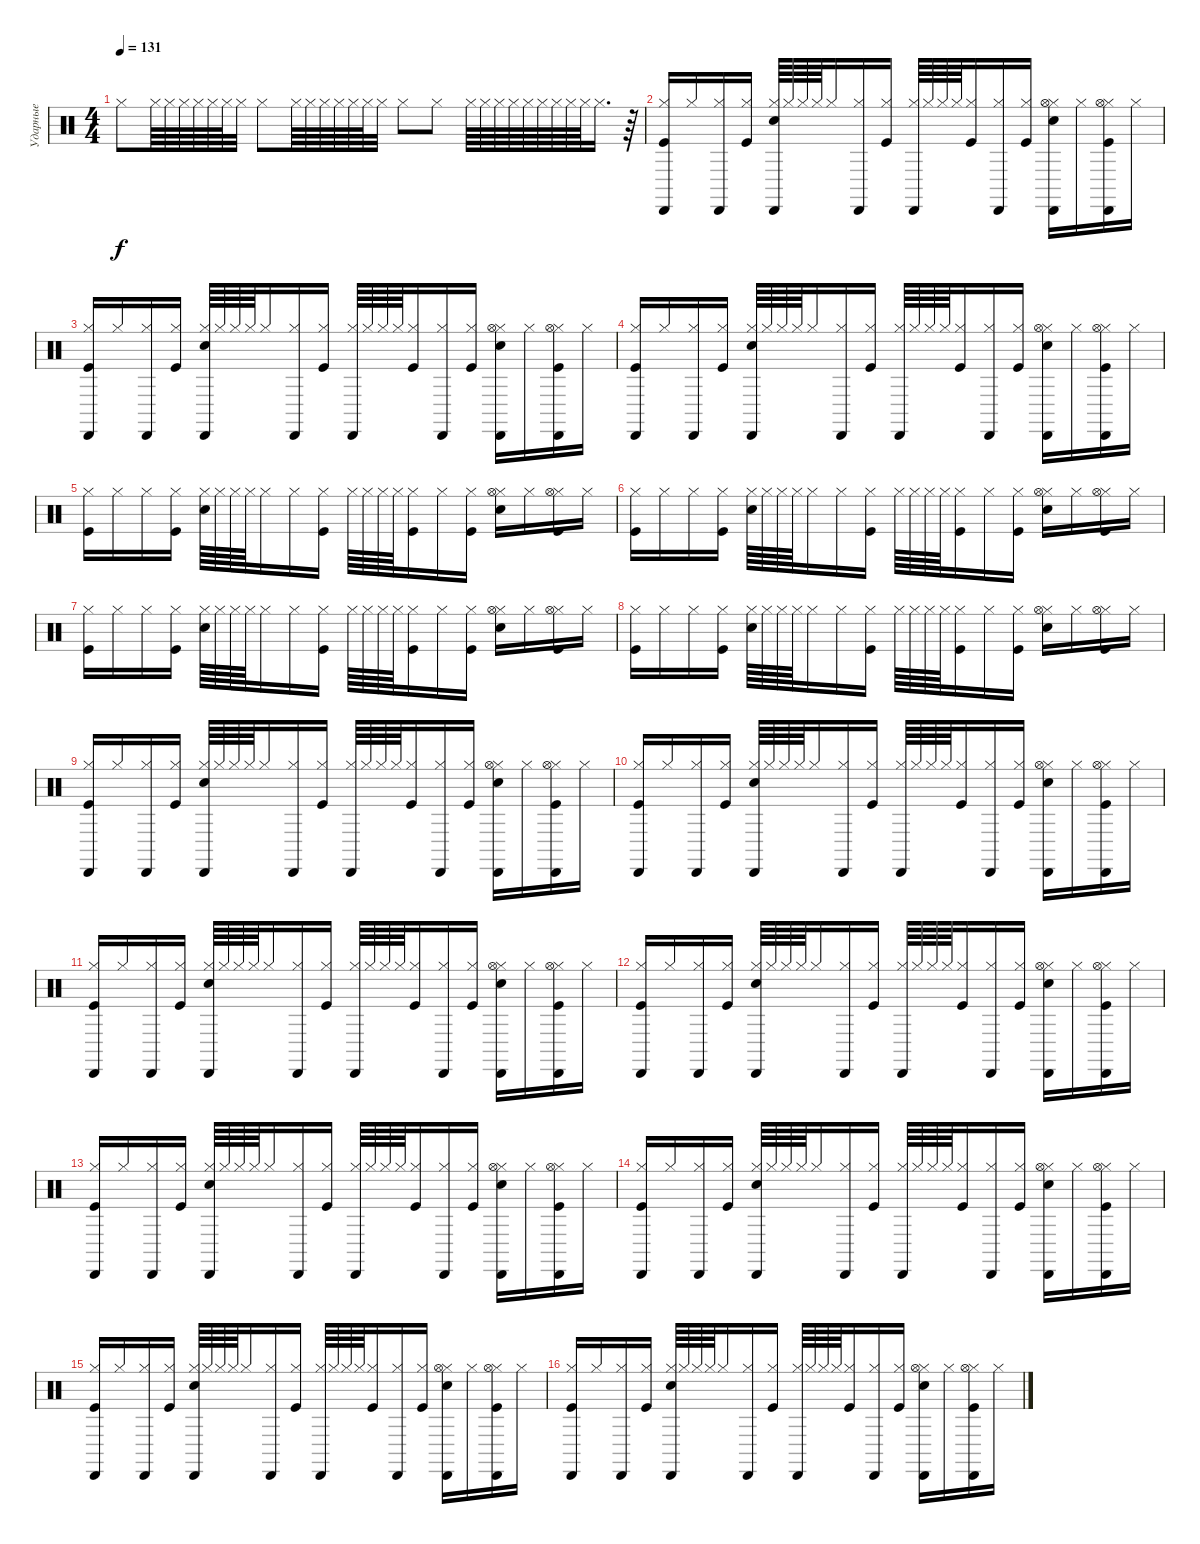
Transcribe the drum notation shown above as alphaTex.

\track ("Ударные" "Ударные") {instrument percussion}
\staff {score}
\articulation defaults
\ts (4 4)
\tempo 131
\clef neutral
\ks c "Hi-Hat (closed)".8{dy f} "Hi-Hat (closed)".64 "Hi-Hat (closed)".64 "Hi-Hat (closed)".64 "Hi-Hat (closed)".64 "Hi-Hat (closed)".64 "Hi-Hat (closed)".64 "Hi-Hat (closed)".32 "Hi-Hat (closed)".8 "Hi-Hat (closed)".64 "Hi-Hat (closed)".64 "Hi-Hat (closed)".64 "Hi-Hat (closed)".64 "Hi-Hat (closed)".64 "Hi-Hat (closed)".64 "Hi-Hat (closed)".32 "Hi-Hat (closed)".8 "Hi-Hat (closed)".8 "Hi-Hat (closed)".64 "Hi-Hat (closed)".64 "Hi-Hat (closed)".64 "Hi-Hat (closed)".64 "Hi-Hat (closed)".64 "Hi-Hat (closed)".64 "Hi-Hat (closed)".64 "Hi-Hat (closed)".64 "Hi-Hat (closed)".64 "Hi-Hat (closed)".16{d}
r.64 |
("Hi-Hat (closed)" "Kick (hit)" "Cabasa (hit)").16 "Hi-Hat (closed)".16 ("Hi-Hat (closed)" "Cabasa (hit)").16 ("Hi-Hat (closed)" "Kick (hit)").16 ("Hi-Hat (closed)" "Snare (hit) 2" "Cabasa (hit)").64 "Hi-Hat (closed)".64 "Hi-Hat (closed)".64 "Hi-Hat (closed)".64 "Hi-Hat (closed)".16 ("Hi-Hat (closed)" "Cabasa (hit)").16 ("Hi-Hat (closed)" "Kick (hit)").16 ("Hi-Hat (closed)" "Cabasa (hit)").64 "Hi-Hat (closed)".64 "Hi-Hat (closed)".64 "Hi-Hat (closed)".64 ("Hi-Hat (closed)" "Kick (hit)").16 ("Hi-Hat (closed)" "Cabasa (hit)").16 ("Hi-Hat (closed)" "Kick (hit)").16 ("Hi-Hat (closed)" "Hi-Hat (open)" "Snare (hit) 2" "Cabasa (hit)").16 "Hi-Hat (closed)".16 ("Hi-Hat (closed)" "Hi-Hat (open)" "Kick (hit)" "Cabasa (hit)").16 "Hi-Hat (closed)".16 |
("Hi-Hat (closed)" "Kick (hit)" "Cabasa (hit)").16 "Hi-Hat (closed)".16 ("Hi-Hat (closed)" "Cabasa (hit)").16 ("Hi-Hat (closed)" "Kick (hit)").16 ("Hi-Hat (closed)" "Snare (hit) 2" "Cabasa (hit)").64 "Hi-Hat (closed)".64 "Hi-Hat (closed)".64 "Hi-Hat (closed)".64 "Hi-Hat (closed)".16 ("Hi-Hat (closed)" "Cabasa (hit)").16 ("Hi-Hat (closed)" "Kick (hit)").16 ("Hi-Hat (closed)" "Cabasa (hit)").64 "Hi-Hat (closed)".64 "Hi-Hat (closed)".64 "Hi-Hat (closed)".64 ("Hi-Hat (closed)" "Kick (hit)").16 ("Hi-Hat (closed)" "Cabasa (hit)").16 ("Hi-Hat (closed)" "Kick (hit)").16 ("Hi-Hat (closed)" "Hi-Hat (open)" "Snare (hit) 2" "Cabasa (hit)").16 "Hi-Hat (closed)".16 ("Hi-Hat (closed)" "Hi-Hat (open)" "Kick (hit)" "Cabasa (hit)").16 "Hi-Hat (closed)".16 |
("Hi-Hat (closed)" "Kick (hit)" "Cabasa (hit)").16 "Hi-Hat (closed)".16 ("Hi-Hat (closed)" "Cabasa (hit)").16 ("Hi-Hat (closed)" "Kick (hit)").16 ("Hi-Hat (closed)" "Snare (hit) 2" "Cabasa (hit)").64 "Hi-Hat (closed)".64 "Hi-Hat (closed)".64 "Hi-Hat (closed)".64 "Hi-Hat (closed)".16 ("Hi-Hat (closed)" "Cabasa (hit)").16 ("Hi-Hat (closed)" "Kick (hit)").16 ("Hi-Hat (closed)" "Cabasa (hit)").64 "Hi-Hat (closed)".64 "Hi-Hat (closed)".64 "Hi-Hat (closed)".64 ("Hi-Hat (closed)" "Kick (hit)").16 ("Hi-Hat (closed)" "Cabasa (hit)").16 ("Hi-Hat (closed)" "Kick (hit)").16 ("Hi-Hat (closed)" "Hi-Hat (open)" "Snare (hit) 2" "Cabasa (hit)").16 "Hi-Hat (closed)".16 ("Hi-Hat (closed)" "Hi-Hat (open)" "Kick (hit)" "Cabasa (hit)").16 "Hi-Hat (closed)".16 |
("Hi-Hat (closed)" "Kick (hit)").16 "Hi-Hat (closed)".16 "Hi-Hat (closed)".16 ("Hi-Hat (closed)" "Kick (hit)").16 ("Hi-Hat (closed)" "Snare (hit) 2").64 "Hi-Hat (closed)".64 "Hi-Hat (closed)".64 "Hi-Hat (closed)".64 "Hi-Hat (closed)".16 "Hi-Hat (closed)".16 ("Hi-Hat (closed)" "Kick (hit)").16 "Hi-Hat (closed)".64 "Hi-Hat (closed)".64 "Hi-Hat (closed)".64 "Hi-Hat (closed)".64 ("Hi-Hat (closed)" "Kick (hit)").16 "Hi-Hat (closed)".16 ("Hi-Hat (closed)" "Kick (hit)").16 ("Hi-Hat (closed)" "Hi-Hat (open)" "Snare (hit) 2").16 "Hi-Hat (closed)".16 ("Hi-Hat (closed)" "Hi-Hat (open)" "Kick (hit)").16 "Hi-Hat (closed)".16 |
("Hi-Hat (closed)" "Kick (hit)").16 "Hi-Hat (closed)".16 "Hi-Hat (closed)".16 ("Hi-Hat (closed)" "Kick (hit)").16 ("Hi-Hat (closed)" "Snare (hit) 2").64 "Hi-Hat (closed)".64 "Hi-Hat (closed)".64 "Hi-Hat (closed)".64 "Hi-Hat (closed)".16 "Hi-Hat (closed)".16 ("Hi-Hat (closed)" "Kick (hit)").16 "Hi-Hat (closed)".64 "Hi-Hat (closed)".64 "Hi-Hat (closed)".64 "Hi-Hat (closed)".64 ("Hi-Hat (closed)" "Kick (hit)").16 "Hi-Hat (closed)".16 ("Hi-Hat (closed)" "Kick (hit)").16 ("Hi-Hat (closed)" "Hi-Hat (open)" "Snare (hit) 2").16 "Hi-Hat (closed)".16 ("Hi-Hat (closed)" "Hi-Hat (open)" "Kick (hit)").16 "Hi-Hat (closed)".16 |
("Hi-Hat (closed)" "Kick (hit)").16 "Hi-Hat (closed)".16 "Hi-Hat (closed)".16 ("Hi-Hat (closed)" "Kick (hit)").16 ("Hi-Hat (closed)" "Snare (hit) 2").64 "Hi-Hat (closed)".64 "Hi-Hat (closed)".64 "Hi-Hat (closed)".64 "Hi-Hat (closed)".16 "Hi-Hat (closed)".16 ("Hi-Hat (closed)" "Kick (hit)").16 "Hi-Hat (closed)".64 "Hi-Hat (closed)".64 "Hi-Hat (closed)".64 "Hi-Hat (closed)".64 ("Hi-Hat (closed)" "Kick (hit)").16 "Hi-Hat (closed)".16 ("Hi-Hat (closed)" "Kick (hit)").16 ("Hi-Hat (closed)" "Hi-Hat (open)" "Snare (hit) 2").16 "Hi-Hat (closed)".16 ("Hi-Hat (closed)" "Hi-Hat (open)" "Kick (hit)").16 "Hi-Hat (closed)".16 |
("Hi-Hat (closed)" "Kick (hit)").16 "Hi-Hat (closed)".16 "Hi-Hat (closed)".16 ("Hi-Hat (closed)" "Kick (hit)").16 ("Hi-Hat (closed)" "Snare (hit) 2").64 "Hi-Hat (closed)".64 "Hi-Hat (closed)".64 "Hi-Hat (closed)".64 "Hi-Hat (closed)".16 "Hi-Hat (closed)".16 ("Hi-Hat (closed)" "Kick (hit)").16 "Hi-Hat (closed)".64 "Hi-Hat (closed)".64 "Hi-Hat (closed)".64 "Hi-Hat (closed)".64 ("Hi-Hat (closed)" "Kick (hit)").16 "Hi-Hat (closed)".16 ("Hi-Hat (closed)" "Kick (hit)").16 ("Hi-Hat (closed)" "Hi-Hat (open)" "Snare (hit) 2").16 "Hi-Hat (closed)".16 ("Hi-Hat (closed)" "Hi-Hat (open)" "Kick (hit)").16 "Hi-Hat (closed)".16 |
("Hi-Hat (closed)" "Kick (hit)" "Cabasa (hit)").16 "Hi-Hat (closed)".16 ("Hi-Hat (closed)" "Cabasa (hit)").16 ("Hi-Hat (closed)" "Kick (hit)").16 ("Hi-Hat (closed)" "Snare (hit) 2" "Cabasa (hit)").64 "Hi-Hat (closed)".64 "Hi-Hat (closed)".64 "Hi-Hat (closed)".64 "Hi-Hat (closed)".16 ("Hi-Hat (closed)" "Cabasa (hit)").16 ("Hi-Hat (closed)" "Kick (hit)").16 ("Hi-Hat (closed)" "Cabasa (hit)").64 "Hi-Hat (closed)".64 "Hi-Hat (closed)".64 "Hi-Hat (closed)".64 ("Hi-Hat (closed)" "Kick (hit)").16 ("Hi-Hat (closed)" "Cabasa (hit)").16 ("Hi-Hat (closed)" "Kick (hit)").16 ("Hi-Hat (closed)" "Hi-Hat (open)" "Snare (hit) 2" "Cabasa (hit)").16 "Hi-Hat (closed)".16 ("Hi-Hat (closed)" "Hi-Hat (open)" "Kick (hit)" "Cabasa (hit)").16 "Hi-Hat (closed)".16 |
("Hi-Hat (closed)" "Kick (hit)" "Cabasa (hit)").16 "Hi-Hat (closed)".16 ("Hi-Hat (closed)" "Cabasa (hit)").16 ("Hi-Hat (closed)" "Kick (hit)").16 ("Hi-Hat (closed)" "Snare (hit) 2" "Cabasa (hit)").64 "Hi-Hat (closed)".64 "Hi-Hat (closed)".64 "Hi-Hat (closed)".64 "Hi-Hat (closed)".16 ("Hi-Hat (closed)" "Cabasa (hit)").16 ("Hi-Hat (closed)" "Kick (hit)").16 ("Hi-Hat (closed)" "Cabasa (hit)").64 "Hi-Hat (closed)".64 "Hi-Hat (closed)".64 "Hi-Hat (closed)".64 ("Hi-Hat (closed)" "Kick (hit)").16 ("Hi-Hat (closed)" "Cabasa (hit)").16 ("Hi-Hat (closed)" "Kick (hit)").16 ("Hi-Hat (closed)" "Hi-Hat (open)" "Snare (hit) 2" "Cabasa (hit)").16 "Hi-Hat (closed)".16 ("Hi-Hat (closed)" "Hi-Hat (open)" "Kick (hit)" "Cabasa (hit)").16 "Hi-Hat (closed)".16 |
("Hi-Hat (closed)" "Kick (hit)" "Cabasa (hit)").16 "Hi-Hat (closed)".16 ("Hi-Hat (closed)" "Cabasa (hit)").16 ("Hi-Hat (closed)" "Kick (hit)").16 ("Hi-Hat (closed)" "Snare (hit) 2" "Cabasa (hit)").64 "Hi-Hat (closed)".64 "Hi-Hat (closed)".64 "Hi-Hat (closed)".64 "Hi-Hat (closed)".16 ("Hi-Hat (closed)" "Cabasa (hit)").16 ("Hi-Hat (closed)" "Kick (hit)").16 ("Hi-Hat (closed)" "Cabasa (hit)").64 "Hi-Hat (closed)".64 "Hi-Hat (closed)".64 "Hi-Hat (closed)".64 ("Hi-Hat (closed)" "Kick (hit)").16 ("Hi-Hat (closed)" "Cabasa (hit)").16 ("Hi-Hat (closed)" "Kick (hit)").16 ("Hi-Hat (closed)" "Hi-Hat (open)" "Snare (hit) 2" "Cabasa (hit)").16 "Hi-Hat (closed)".16 ("Hi-Hat (closed)" "Hi-Hat (open)" "Kick (hit)" "Cabasa (hit)").16 "Hi-Hat (closed)".16 |
("Hi-Hat (closed)" "Kick (hit)" "Cabasa (hit)").16 "Hi-Hat (closed)".16 ("Hi-Hat (closed)" "Cabasa (hit)").16 ("Hi-Hat (closed)" "Kick (hit)").16 ("Hi-Hat (closed)" "Snare (hit) 2" "Cabasa (hit)").64 "Hi-Hat (closed)".64 "Hi-Hat (closed)".64 "Hi-Hat (closed)".64 "Hi-Hat (closed)".16 ("Hi-Hat (closed)" "Cabasa (hit)").16 ("Hi-Hat (closed)" "Kick (hit)").16 ("Hi-Hat (closed)" "Cabasa (hit)").64 "Hi-Hat (closed)".64 "Hi-Hat (closed)".64 "Hi-Hat (closed)".64 ("Hi-Hat (closed)" "Kick (hit)").16 ("Hi-Hat (closed)" "Cabasa (hit)").16 ("Hi-Hat (closed)" "Kick (hit)").16 ("Hi-Hat (closed)" "Hi-Hat (open)" "Snare (hit) 2" "Cabasa (hit)").16 "Hi-Hat (closed)".16 ("Hi-Hat (closed)" "Hi-Hat (open)" "Kick (hit)" "Cabasa (hit)").16 "Hi-Hat (closed)".16 |
("Hi-Hat (closed)" "Kick (hit)" "Cabasa (hit)").16 "Hi-Hat (closed)".16 ("Hi-Hat (closed)" "Cabasa (hit)").16 ("Hi-Hat (closed)" "Kick (hit)").16 ("Hi-Hat (closed)" "Snare (hit) 2" "Cabasa (hit)").64 "Hi-Hat (closed)".64 "Hi-Hat (closed)".64 "Hi-Hat (closed)".64 "Hi-Hat (closed)".16 ("Hi-Hat (closed)" "Cabasa (hit)").16 ("Hi-Hat (closed)" "Kick (hit)").16 ("Hi-Hat (closed)" "Cabasa (hit)").64 "Hi-Hat (closed)".64 "Hi-Hat (closed)".64 "Hi-Hat (closed)".64 ("Hi-Hat (closed)" "Kick (hit)").16 ("Hi-Hat (closed)" "Cabasa (hit)").16 ("Hi-Hat (closed)" "Kick (hit)").16 ("Hi-Hat (closed)" "Hi-Hat (open)" "Snare (hit) 2" "Cabasa (hit)").16 "Hi-Hat (closed)".16 ("Hi-Hat (closed)" "Hi-Hat (open)" "Kick (hit)" "Cabasa (hit)").16 "Hi-Hat (closed)".16 |
("Hi-Hat (closed)" "Kick (hit)" "Cabasa (hit)").16 "Hi-Hat (closed)".16 ("Hi-Hat (closed)" "Cabasa (hit)").16 ("Hi-Hat (closed)" "Kick (hit)").16 ("Hi-Hat (closed)" "Snare (hit) 2" "Cabasa (hit)").64 "Hi-Hat (closed)".64 "Hi-Hat (closed)".64 "Hi-Hat (closed)".64 "Hi-Hat (closed)".16 ("Hi-Hat (closed)" "Cabasa (hit)").16 ("Hi-Hat (closed)" "Kick (hit)").16 ("Hi-Hat (closed)" "Cabasa (hit)").64 "Hi-Hat (closed)".64 "Hi-Hat (closed)".64 "Hi-Hat (closed)".64 ("Hi-Hat (closed)" "Kick (hit)").16 ("Hi-Hat (closed)" "Cabasa (hit)").16 ("Hi-Hat (closed)" "Kick (hit)").16 ("Hi-Hat (closed)" "Hi-Hat (open)" "Snare (hit) 2" "Cabasa (hit)").16 "Hi-Hat (closed)".16 ("Hi-Hat (closed)" "Hi-Hat (open)" "Kick (hit)" "Cabasa (hit)").16 "Hi-Hat (closed)".16 |
("Hi-Hat (closed)" "Kick (hit)" "Cabasa (hit)").16 "Hi-Hat (closed)".16 ("Hi-Hat (closed)" "Cabasa (hit)").16 ("Hi-Hat (closed)" "Kick (hit)").16 ("Hi-Hat (closed)" "Snare (hit) 2" "Cabasa (hit)").64 "Hi-Hat (closed)".64 "Hi-Hat (closed)".64 "Hi-Hat (closed)".64 "Hi-Hat (closed)".16 ("Hi-Hat (closed)" "Cabasa (hit)").16 ("Hi-Hat (closed)" "Kick (hit)").16 ("Hi-Hat (closed)" "Cabasa (hit)").64 "Hi-Hat (closed)".64 "Hi-Hat (closed)".64 "Hi-Hat (closed)".64 ("Hi-Hat (closed)" "Kick (hit)").16 ("Hi-Hat (closed)" "Cabasa (hit)").16 ("Hi-Hat (closed)" "Kick (hit)").16 ("Hi-Hat (closed)" "Hi-Hat (open)" "Snare (hit) 2" "Cabasa (hit)").16 "Hi-Hat (closed)".16 ("Hi-Hat (closed)" "Hi-Hat (open)" "Kick (hit)" "Cabasa (hit)").16 "Hi-Hat (closed)".16 |
("Hi-Hat (closed)" "Kick (hit)" "Cabasa (hit)").16 "Hi-Hat (closed)".16 ("Hi-Hat (closed)" "Cabasa (hit)").16 ("Hi-Hat (closed)" "Kick (hit)").16 ("Hi-Hat (closed)" "Snare (hit) 2" "Cabasa (hit)").64 "Hi-Hat (closed)".64 "Hi-Hat (closed)".64 "Hi-Hat (closed)".64 "Hi-Hat (closed)".16 ("Hi-Hat (closed)" "Cabasa (hit)").16 ("Hi-Hat (closed)" "Kick (hit)").16 ("Hi-Hat (closed)" "Cabasa (hit)").64 "Hi-Hat (closed)".64 "Hi-Hat (closed)".64 "Hi-Hat (closed)".64 ("Hi-Hat (closed)" "Kick (hit)").16 ("Hi-Hat (closed)" "Cabasa (hit)").16 ("Hi-Hat (closed)" "Kick (hit)").16 ("Hi-Hat (closed)" "Hi-Hat (open)" "Snare (hit) 2" "Cabasa (hit)").16 "Hi-Hat (closed)".16 ("Hi-Hat (closed)" "Hi-Hat (open)" "Kick (hit)" "Cabasa (hit)").16 "Hi-Hat (closed)".16
